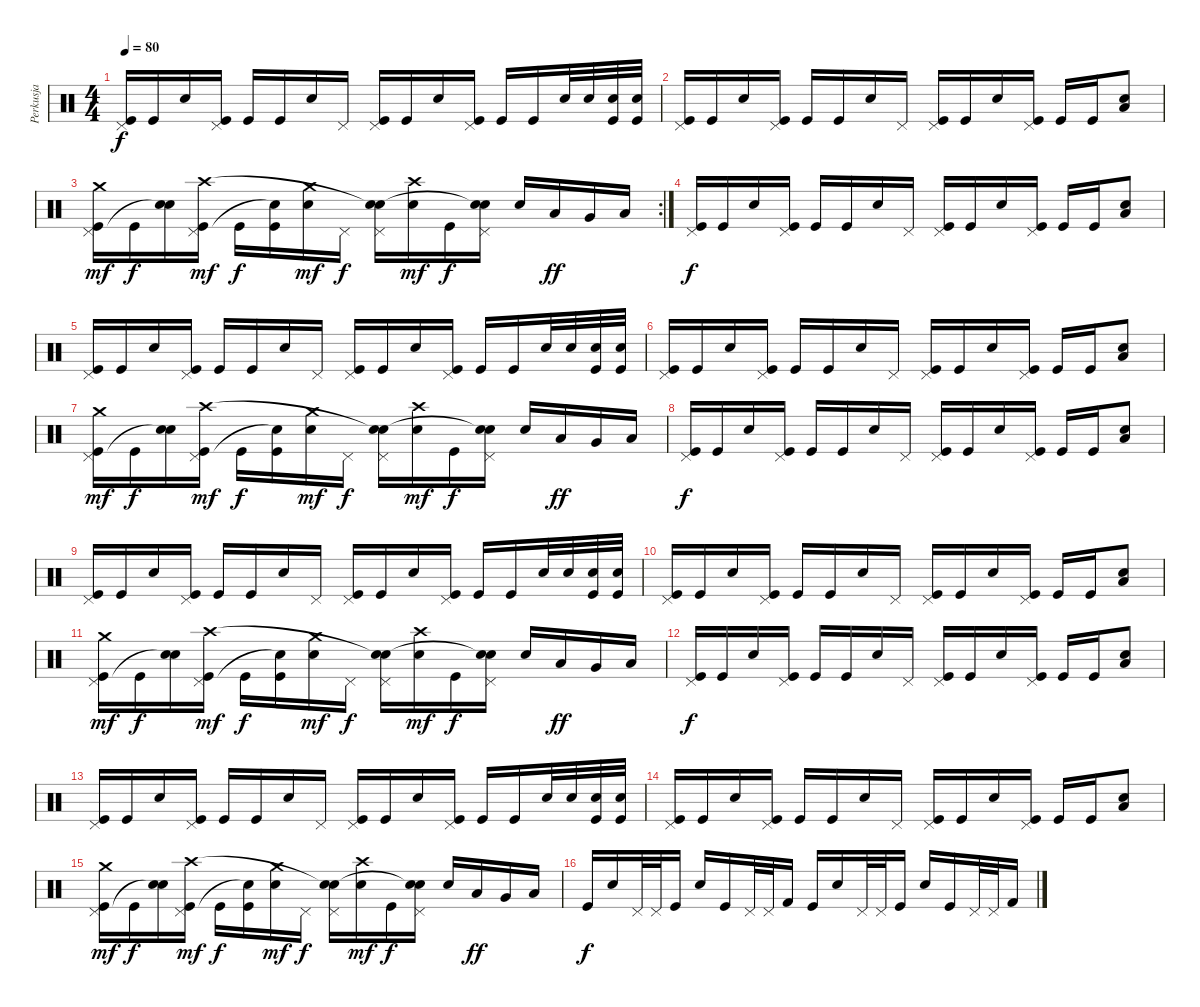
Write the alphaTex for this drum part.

\track ("Perkusja" "Perkusja") {instrument percussion}
\staff {score}
\articulation defaults
\ts (4 4)
\tempo 80
\clef neutral
\ks c
("Kick (hit)" "Pedal Hi-Hat (hit)").16{dy f} "Kick (hit)".16 "Electric Snare (hit)".16 ("Kick (hit)" "Pedal Hi-Hat (hit)").16 "Kick (hit)".16 "Kick (hit)".16 "Electric Snare (hit)".16 "Pedal Hi-Hat (hit)".16 ("Kick (hit)" "Pedal Hi-Hat (hit)").16 "Kick (hit)".16 "Electric Snare (hit)".16 ("Kick (hit)" "Pedal Hi-Hat (hit)").16 "Kick (hit)".16 "Kick (hit)".16 "Electric Snare (hit)".32 "Electric Snare (hit)".32 ("Electric Snare (hit)" "Kick (hit)").32 ("Electric Snare (hit)" "Kick (hit)").32 |
("Kick (hit)" "Pedal Hi-Hat (hit)").16 "Kick (hit)".16 "Electric Snare (hit)".16 ("Kick (hit)" "Pedal Hi-Hat (hit)").16 "Kick (hit)".16 "Kick (hit)".16 "Electric Snare (hit)".16 "Pedal Hi-Hat (hit)".16 ("Kick (hit)" "Pedal Hi-Hat (hit)").16 "Kick (hit)".16 "Electric Snare (hit)".16 ("Kick (hit)" "Pedal Hi-Hat (hit)").16 "Kick (hit)".16 "Kick (hit)".16 ("Electric Snare (hit)" "Low Tom (hit)").8 |
\rc 2
("Kick (hit)" "Pedal Hi-Hat (hit)" "Crash medium (hit)").16{dy mf} "Kick (hit)".16{dy f} ("Electric Snare (hit)" "Snare (hit)"{t}).16 ("Kick (hit)" "Pedal Hi-Hat (hit)" "Crash high (hit)").16{dy mf} "Kick (hit)".16{dy f} ("Kick (hit)" "Snare (hit)"{t}).16 ("Electric Snare (hit)" "Crash medium (hit)").16{dy mf} "Pedal Hi-Hat (hit)".16{dy f} ("Electric Snare (hit)" "Pedal Hi-Hat (hit)" "Snare (hit)"{t}).16 ("Snare (hit) 2" "Crash high (hit)").16{dy mf} "Kick (hit)".16{dy f} ("Electric Snare (hit)" "Pedal Hi-Hat (hit)" "Snare (hit)"{t}).16 "Snare (hit) 2".16 "Low Tom (hit)".16{dy ff} "Very Low Tom (hit)".16 "Low Floor Tom (hit)".16 |
("Kick (hit)" "Pedal Hi-Hat (hit)").16{dy f} "Kick (hit)".16 "Electric Snare (hit)".16 ("Kick (hit)" "Pedal Hi-Hat (hit)").16 "Kick (hit)".16 "Kick (hit)".16 "Electric Snare (hit)".16 "Pedal Hi-Hat (hit)".16 ("Kick (hit)" "Pedal Hi-Hat (hit)").16 "Kick (hit)".16 "Electric Snare (hit)".16 ("Kick (hit)" "Pedal Hi-Hat (hit)").16 "Kick (hit)".16 "Kick (hit)".16 ("Electric Snare (hit)" "Low Tom (hit)").8 |
("Kick (hit)" "Pedal Hi-Hat (hit)").16 "Kick (hit)".16 "Electric Snare (hit)".16 ("Kick (hit)" "Pedal Hi-Hat (hit)").16 "Kick (hit)".16 "Kick (hit)".16 "Electric Snare (hit)".16 "Pedal Hi-Hat (hit)".16 ("Kick (hit)" "Pedal Hi-Hat (hit)").16 "Kick (hit)".16 "Electric Snare (hit)".16 ("Kick (hit)" "Pedal Hi-Hat (hit)").16 "Kick (hit)".16 "Kick (hit)".16 "Electric Snare (hit)".32 "Electric Snare (hit)".32 ("Electric Snare (hit)" "Kick (hit)").32 ("Electric Snare (hit)" "Kick (hit)").32 |
("Kick (hit)" "Pedal Hi-Hat (hit)").16 "Kick (hit)".16 "Electric Snare (hit)".16 ("Kick (hit)" "Pedal Hi-Hat (hit)").16 "Kick (hit)".16 "Kick (hit)".16 "Electric Snare (hit)".16 "Pedal Hi-Hat (hit)".16 ("Kick (hit)" "Pedal Hi-Hat (hit)").16 "Kick (hit)".16 "Electric Snare (hit)".16 ("Kick (hit)" "Pedal Hi-Hat (hit)").16 "Kick (hit)".16 "Kick (hit)".16 ("Electric Snare (hit)" "Low Tom (hit)").8 |
("Kick (hit)" "Pedal Hi-Hat (hit)" "Crash medium (hit)").16{dy mf} "Kick (hit)".16{dy f} ("Electric Snare (hit)" "Snare (hit)"{t}).16 ("Kick (hit)" "Pedal Hi-Hat (hit)" "Crash high (hit)").16{dy mf} "Kick (hit)".16{dy f} ("Kick (hit)" "Snare (hit)"{t}).16 ("Electric Snare (hit)" "Crash medium (hit)").16{dy mf} "Pedal Hi-Hat (hit)".16{dy f} ("Electric Snare (hit)" "Pedal Hi-Hat (hit)" "Snare (hit)"{t}).16 ("Snare (hit) 2" "Crash high (hit)").16{dy mf} "Kick (hit)".16{dy f} ("Electric Snare (hit)" "Pedal Hi-Hat (hit)" "Snare (hit)"{t}).16 "Snare (hit) 2".16 "Low Tom (hit)".16{dy ff} "Very Low Tom (hit)".16 "Low Floor Tom (hit)".16 |
("Kick (hit)" "Pedal Hi-Hat (hit)").16{dy f} "Kick (hit)".16 "Electric Snare (hit)".16 ("Kick (hit)" "Pedal Hi-Hat (hit)").16 "Kick (hit)".16 "Kick (hit)".16 "Electric Snare (hit)".16 "Pedal Hi-Hat (hit)".16 ("Kick (hit)" "Pedal Hi-Hat (hit)").16 "Kick (hit)".16 "Electric Snare (hit)".16 ("Kick (hit)" "Pedal Hi-Hat (hit)").16 "Kick (hit)".16 "Kick (hit)".16 ("Electric Snare (hit)" "Low Tom (hit)").8 |
("Kick (hit)" "Pedal Hi-Hat (hit)").16 "Kick (hit)".16 "Electric Snare (hit)".16 ("Kick (hit)" "Pedal Hi-Hat (hit)").16 "Kick (hit)".16 "Kick (hit)".16 "Electric Snare (hit)".16 "Pedal Hi-Hat (hit)".16 ("Kick (hit)" "Pedal Hi-Hat (hit)").16 "Kick (hit)".16 "Electric Snare (hit)".16 ("Kick (hit)" "Pedal Hi-Hat (hit)").16 "Kick (hit)".16 "Kick (hit)".16 "Electric Snare (hit)".32 "Electric Snare (hit)".32 ("Electric Snare (hit)" "Kick (hit)").32 ("Electric Snare (hit)" "Kick (hit)").32 |
("Kick (hit)" "Pedal Hi-Hat (hit)").16 "Kick (hit)".16 "Electric Snare (hit)".16 ("Kick (hit)" "Pedal Hi-Hat (hit)").16 "Kick (hit)".16 "Kick (hit)".16 "Electric Snare (hit)".16 "Pedal Hi-Hat (hit)".16 ("Kick (hit)" "Pedal Hi-Hat (hit)").16 "Kick (hit)".16 "Electric Snare (hit)".16 ("Kick (hit)" "Pedal Hi-Hat (hit)").16 "Kick (hit)".16 "Kick (hit)".16 ("Electric Snare (hit)" "Low Tom (hit)").8 |
("Kick (hit)" "Pedal Hi-Hat (hit)" "Crash medium (hit)").16{dy mf} "Kick (hit)".16{dy f} ("Electric Snare (hit)" "Snare (hit)"{t}).16 ("Kick (hit)" "Pedal Hi-Hat (hit)" "Crash high (hit)").16{dy mf} "Kick (hit)".16{dy f} ("Kick (hit)" "Snare (hit)"{t}).16 ("Electric Snare (hit)" "Crash medium (hit)").16{dy mf} "Pedal Hi-Hat (hit)".16{dy f} ("Electric Snare (hit)" "Pedal Hi-Hat (hit)" "Snare (hit)"{t}).16 ("Snare (hit) 2" "Crash high (hit)").16{dy mf} "Kick (hit)".16{dy f} ("Electric Snare (hit)" "Pedal Hi-Hat (hit)" "Snare (hit)"{t}).16 "Snare (hit) 2".16 "Low Tom (hit)".16{dy ff} "Very Low Tom (hit)".16 "Low Floor Tom (hit)".16 |
("Kick (hit)" "Pedal Hi-Hat (hit)").16{dy f} "Kick (hit)".16 "Electric Snare (hit)".16 ("Kick (hit)" "Pedal Hi-Hat (hit)").16 "Kick (hit)".16 "Kick (hit)".16 "Electric Snare (hit)".16 "Pedal Hi-Hat (hit)".16 ("Kick (hit)" "Pedal Hi-Hat (hit)").16 "Kick (hit)".16 "Electric Snare (hit)".16 ("Kick (hit)" "Pedal Hi-Hat (hit)").16 "Kick (hit)".16 "Kick (hit)".16 ("Electric Snare (hit)" "Low Tom (hit)").8 |
("Kick (hit)" "Pedal Hi-Hat (hit)").16 "Kick (hit)".16 "Electric Snare (hit)".16 ("Kick (hit)" "Pedal Hi-Hat (hit)").16 "Kick (hit)".16 "Kick (hit)".16 "Electric Snare (hit)".16 "Pedal Hi-Hat (hit)".16 ("Kick (hit)" "Pedal Hi-Hat (hit)").16 "Kick (hit)".16 "Electric Snare (hit)".16 ("Kick (hit)" "Pedal Hi-Hat (hit)").16 "Kick (hit)".16 "Kick (hit)".16 "Electric Snare (hit)".32 "Electric Snare (hit)".32 ("Electric Snare (hit)" "Kick (hit)").32 ("Electric Snare (hit)" "Kick (hit)").32 |
("Kick (hit)" "Pedal Hi-Hat (hit)").16 "Kick (hit)".16 "Electric Snare (hit)".16 ("Kick (hit)" "Pedal Hi-Hat (hit)").16 "Kick (hit)".16 "Kick (hit)".16 "Electric Snare (hit)".16 "Pedal Hi-Hat (hit)".16 ("Kick (hit)" "Pedal Hi-Hat (hit)").16 "Kick (hit)".16 "Electric Snare (hit)".16 ("Kick (hit)" "Pedal Hi-Hat (hit)").16 "Kick (hit)".16 "Kick (hit)".16 ("Electric Snare (hit)" "Low Tom (hit)").8 |
("Kick (hit)" "Pedal Hi-Hat (hit)" "Crash medium (hit)").16{dy mf} "Kick (hit)".16{dy f} ("Electric Snare (hit)" "Snare (hit)"{t}).16 ("Kick (hit)" "Pedal Hi-Hat (hit)" "Crash high (hit)").16{dy mf} "Kick (hit)".16{dy f} ("Kick (hit)" "Snare (hit)"{t}).16 ("Electric Snare (hit)" "Crash medium (hit)").16{dy mf} "Pedal Hi-Hat (hit)".16{dy f} ("Electric Snare (hit)" "Pedal Hi-Hat (hit)" "Snare (hit)"{t}).16 ("Snare (hit) 2" "Crash high (hit)").16{dy mf} "Kick (hit)".16{dy f} ("Electric Snare (hit)" "Pedal Hi-Hat (hit)" "Snare (hit)"{t}).16 "Snare (hit) 2".16 "Low Tom (hit)".16{dy ff} "Very Low Tom (hit)".16 "Low Floor Tom (hit)".16 |
"Kick (hit)".16{dy f} "Electric Snare (hit)".16 "Pedal Hi-Hat (hit)".32 "Pedal Hi-Hat (hit)".32 "Kick (hit)".16 "Electric Snare (hit)".16 "Kick (hit)".16 "Pedal Hi-Hat (hit)".32 "Pedal Hi-Hat (hit)".32 "Kick (hit) 2".16 "Kick (hit)".16 "Electric Snare (hit)".16 "Pedal Hi-Hat (hit)".32 "Pedal Hi-Hat (hit)".32 "Kick (hit)".16 "Electric Snare (hit)".16 "Kick (hit)".16 "Pedal Hi-Hat (hit)".32 "Pedal Hi-Hat (hit)".32 "Kick (hit) 2".16
